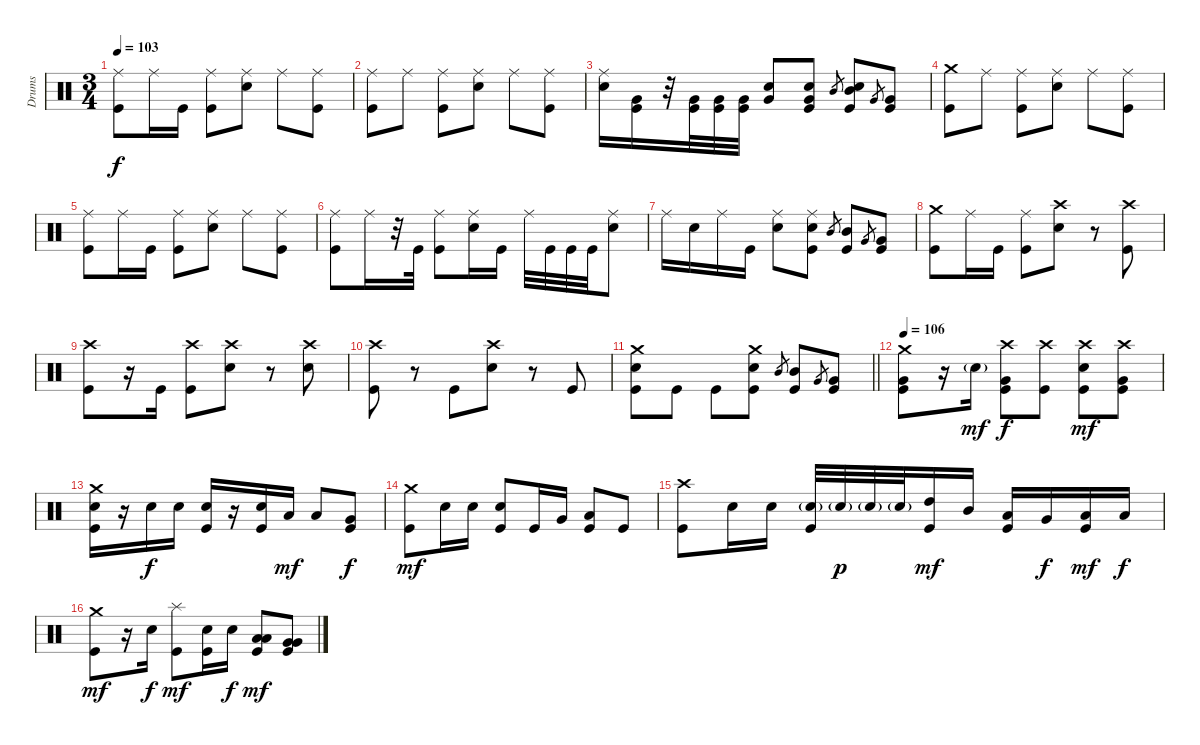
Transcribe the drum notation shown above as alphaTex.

\track ("Drums" "Drums") {instrument percussion}
\staff {score}
\articulation defaults
\ts (3 4)
\tempo 103
\clef neutral
\ks c
("Ride (middle)" "Kick (hit)").8{dy f} "Ride (middle)".16 "Kick (hit)".16 ("Ride (middle)" "Kick (hit)").8 ("Ride (middle)" "Snare (hit) 2").8 "Ride (middle)".8 ("Ride (middle)" "Kick (hit)").8 |
("Ride (middle)" "Kick (hit)").8 "Ride (middle)".8 ("Ride (middle)" "Kick (hit)").8 ("Ride (middle)" "Snare (hit) 2").8 "Ride (middle)".8 ("Ride (middle)" "Kick (hit)").8 |
("Ride (middle)" "Snare (hit) 2").16 ("Very Low Tom (hit)" "Kick (hit)").16 r.32 ("Very Low Tom (hit)" "Kick (hit)").32 ("Very Low Tom (hit)" "Kick (hit)").32 ("Very Low Tom (hit)" "Kick (hit)").32 ("Snare (hit) 2" "Very Low Tom (hit)").8 ("Snare (hit) 2" "Very Low Tom (hit)" "Kick (hit)").8 "Mid Tom (hit)".8{gr} ("Snare (hit) 2" "Mid Tom (hit)" "Kick (hit)").8 "Very Low Tom (hit)".8{gr} ("Very Low Tom (hit)" "Kick (hit)").8 |
("Crash medium (hit)" "Kick (hit)").8 "Ride (middle)".8 ("Ride (middle)" "Kick (hit)").8 ("Ride (middle)" "Snare (hit) 2").8 "Ride (middle)".8 ("Ride (middle)" "Kick (hit)").8 |
("Ride (middle)" "Kick (hit)").8 "Ride (middle)".16 "Kick (hit)".16 ("Ride (middle)" "Kick (hit)").8 ("Ride (middle)" "Snare (hit) 2").8 "Ride (middle)".8 ("Ride (middle)" "Kick (hit)").8 |
("Ride (middle)" "Kick (hit)").8 "Ride (middle)".16 r.32 "Kick (hit)".32 ("Ride (middle)" "Kick (hit)").8 ("Ride (middle)" "Snare (hit) 2").16 "Kick (hit)".16 "Ride (middle)".32 "Kick (hit)".32 "Kick (hit)".32 "Kick (hit)".32 ("Ride (middle)" "Snare (hit) 2").8 |
"Ride (middle)".16 "Snare (hit) 2".16 "Ride (middle)".16 "Kick (hit)".16 ("Ride (middle)" "Snare (hit) 2").8 ("Ride (middle)" "Snare (hit) 2" "Kick (hit)").8 "Mid Tom (hit)".8{gr} ("Mid Tom (hit)" "Kick (hit)").8 "Very Low Tom (hit)".8{gr} ("Very Low Tom (hit)" "Kick (hit)").8 |
("Crash medium (hit)" "Kick (hit)").8 "Ride (middle)".16 "Kick (hit)".16 ("Ride (middle)" "Kick (hit)").8 ("Crash high (hit)" "Snare (hit) 2").8 r.8 ("Crash high (hit)" "Kick (hit)").8 |
("Crash high (hit)" "Kick (hit)").8 r.16 "Kick (hit)".16 ("Crash high (hit)" "Kick (hit)").8 ("Crash high (hit)" "Snare (hit) 2").8 r.8 ("Crash high (hit)" "Snare (hit) 2").8 |
("Crash high (hit)" "Kick (hit)").8 r.8 "Kick (hit)".8 ("Crash high (hit)" "Snare (hit) 2").8 r.8 "Kick (hit)".8 |
\barLineRight lightlight
("Crash medium (hit)" "Snare (hit) 2" "Kick (hit)").8 "Kick (hit)".8 "Kick (hit)".8 ("Crash medium (hit)" "Snare (hit) 2" "Kick (hit)").8 "Mid Tom (hit)".8{gr} ("Mid Tom (hit)" "Kick (hit)").8 "Very Low Tom (hit)".8{gr} ("Very Low Tom (hit)" "Kick (hit)").8 |
\tempo 106
("Crash medium (hit)" "Very Low Tom (hit)" "Kick (hit)").8 r.16 "Snare (hit) 2"{g}.16{dy mf} ("Crash high (hit)" "Very Low Tom (hit)" "Kick (hit)").8{dy f} ("Crash high (hit)" "Kick (hit)").8 ("Crash high (hit)" "Snare (hit) 2" "Kick (hit)").8{dy mf} ("Crash high (hit)" "Very Low Tom (hit)" "Kick (hit)").8 |
("Crash medium (hit)" "Snare (hit) 2" "Kick (hit)").16 r.16 "Snare (hit) 2".16{dy f} "Snare (hit) 2".16 ("Snare (hit) 2" "Kick (hit)").16 r.16 ("Snare (hit) 2" "Kick (hit)").16 "Low Tom (hit)".16{dy mf} "Low Floor Tom (hit)".8 ("Very Low Tom (hit)" "Kick (hit)").8{dy f} |
("Crash medium (hit)" "Kick (hit)").8{dy mf} "Snare (hit) 2".16 "Snare (hit) 2".16 ("Snare (hit) 2" "Kick (hit)").8 "Kick (hit)".16 "Very Low Tom (hit)".16 ("Low Floor Tom (hit)" "Kick (hit)").8 "Kick (hit)".8 |
("Crash high (hit)" "Kick (hit)").8 "Snare (hit) 2".16 "Snare (hit) 2".16 ("Snare (hit) 2"{g} "Kick (hit)").32 "Snare (hit) 2"{g}.32{dy p} "Snare (hit) 2"{g}.32 "Snare (hit) 2"{g}.32 ("High Tom (hit)" "Kick (hit)").16{dy mf} "Mid Tom (hit)".16 ("Low Tom (hit)" "Kick (hit)").16 "Very Low Tom (hit)".16{dy f} ("Low Floor Tom (hit)" "Kick (hit)").16{dy mf} "Low Floor Tom (hit)".16{dy f} |
("Crash medium (hit)" "Kick (hit)").8{dy mf} r.16 "Snare (hit) 2".16{dy f} ("Splash (hit)" "Kick (hit)").8{dy mf} ("Snare (hit) 2" "Kick (hit)").16 "Snare (hit) 2".16{dy f} ("Low Tom (hit)" "Low Tom (hit)" "Kick (hit)").8{dy mf} ("Very Low Tom (hit)" "Very Low Tom (hit)" "Kick (hit)").8
